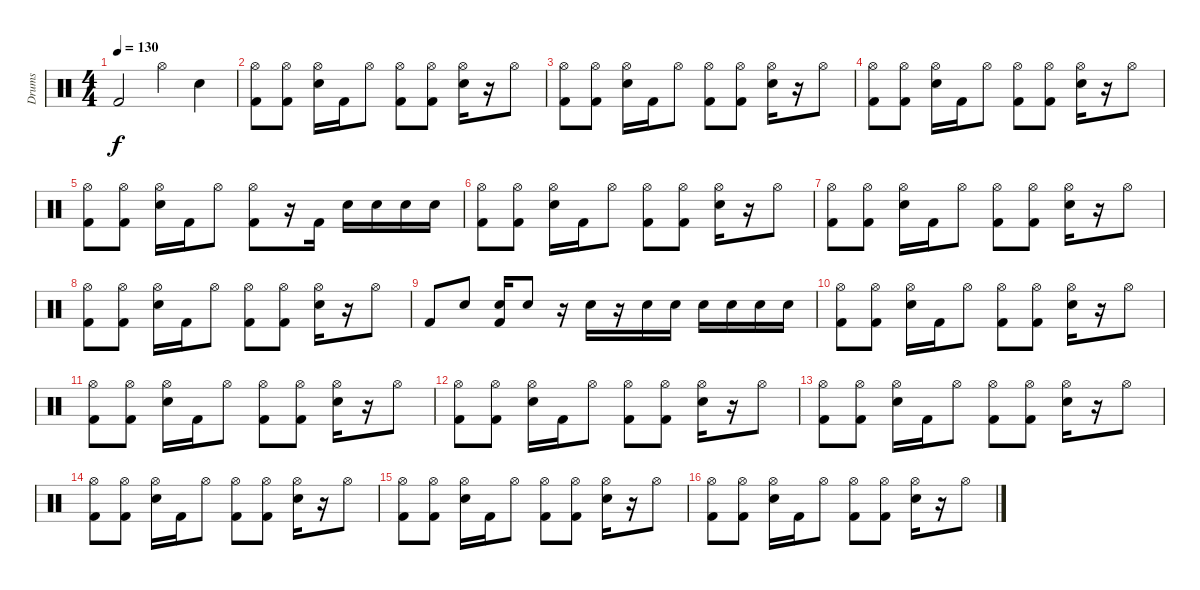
\track ("Drums" "Drums") {instrument percussion}
\staff {score}
\articulation defaults
\ts (4 4)
\tempo 130
\clef neutral
\ks c "Kick (hit) 2".2{dy f} "Hi-Hat (open)".4 "Snare (hit) 2".4
|
("Hi-Hat (open)" "Kick (hit) 2").8 ("Hi-Hat (open)" "Kick (hit) 2").8 ("Hi-Hat (open)" "Snare (hit) 2").16 "Kick (hit) 2".16 "Hi-Hat (open)".8 ("Hi-Hat (open)" "Kick (hit) 2").8 ("Hi-Hat (open)" "Kick (hit) 2").8 ("Hi-Hat (open)" "Snare (hit) 2").16 r.16 "Hi-Hat (open)".8 |
("Hi-Hat (open)" "Kick (hit) 2").8 ("Hi-Hat (open)" "Kick (hit) 2").8 ("Hi-Hat (open)" "Snare (hit) 2").16 "Kick (hit) 2".16 "Hi-Hat (open)".8 ("Hi-Hat (open)" "Kick (hit) 2").8 ("Hi-Hat (open)" "Kick (hit) 2").8 ("Hi-Hat (open)" "Snare (hit) 2").16 r.16 "Hi-Hat (open)".8 |
("Hi-Hat (open)" "Kick (hit) 2").8 ("Hi-Hat (open)" "Kick (hit) 2").8 ("Hi-Hat (open)" "Snare (hit) 2").16 "Kick (hit) 2".16 "Hi-Hat (open)".8 ("Hi-Hat (open)" "Kick (hit) 2").8 ("Hi-Hat (open)" "Kick (hit) 2").8 ("Hi-Hat (open)" "Snare (hit) 2").16 r.16 "Hi-Hat (open)".8 |
("Hi-Hat (open)" "Kick (hit) 2").8 ("Hi-Hat (open)" "Kick (hit) 2").8 ("Hi-Hat (open)" "Snare (hit) 2").16 "Kick (hit) 2".16 "Hi-Hat (open)".8 ("Hi-Hat (open)" "Kick (hit) 2").8 r.16 "Kick (hit) 2".16 "Snare (hit) 2".16 "Snare (hit) 2".16 "Snare (hit) 2".16 "Snare (hit) 2".16 |
("Hi-Hat (open)" "Kick (hit) 2").8 ("Hi-Hat (open)" "Kick (hit) 2").8 ("Hi-Hat (open)" "Snare (hit) 2").16 "Kick (hit) 2".16 "Hi-Hat (open)".8 ("Hi-Hat (open)" "Kick (hit) 2").8 ("Hi-Hat (open)" "Kick (hit) 2").8 ("Hi-Hat (open)" "Snare (hit) 2").16 r.16 "Hi-Hat (open)".8 |
("Hi-Hat (open)" "Kick (hit) 2").8 ("Hi-Hat (open)" "Kick (hit) 2").8 ("Hi-Hat (open)" "Snare (hit) 2").16 "Kick (hit) 2".16 "Hi-Hat (open)".8 ("Hi-Hat (open)" "Kick (hit) 2").8 ("Hi-Hat (open)" "Kick (hit) 2").8 ("Hi-Hat (open)" "Snare (hit) 2").16 r.16 "Hi-Hat (open)".8 |
("Hi-Hat (open)" "Kick (hit) 2").8 ("Hi-Hat (open)" "Kick (hit) 2").8 ("Hi-Hat (open)" "Snare (hit) 2").16 "Kick (hit) 2".16 "Hi-Hat (open)".8 ("Hi-Hat (open)" "Kick (hit) 2").8 ("Hi-Hat (open)" "Kick (hit) 2").8 ("Hi-Hat (open)" "Snare (hit) 2").16 r.16 "Hi-Hat (open)".8 |
"Kick (hit) 2".8 "Snare (hit) 2".8 ("Snare (hit) 2" "Kick (hit) 2").16 "Snare (hit) 2".8 r.16 "Snare (hit) 2".16 r.16 "Snare (hit) 2".16 "Snare (hit) 2".16 "Snare (hit) 2".16 "Snare (hit) 2".16 "Snare (hit) 2".16 "Snare (hit) 2".16 |
("Hi-Hat (open)" "Kick (hit) 2").8 ("Hi-Hat (open)" "Kick (hit) 2").8 ("Hi-Hat (open)" "Snare (hit) 2").16 "Kick (hit) 2".16 "Hi-Hat (open)".8 ("Hi-Hat (open)" "Kick (hit) 2").8 ("Hi-Hat (open)" "Kick (hit) 2").8 ("Hi-Hat (open)" "Snare (hit) 2").16 r.16 "Hi-Hat (open)".8 |
("Hi-Hat (open)" "Kick (hit) 2").8 ("Hi-Hat (open)" "Kick (hit) 2").8 ("Hi-Hat (open)" "Snare (hit) 2").16 "Kick (hit) 2".16 "Hi-Hat (open)".8 ("Hi-Hat (open)" "Kick (hit) 2").8 ("Hi-Hat (open)" "Kick (hit) 2").8 ("Hi-Hat (open)" "Snare (hit) 2").16 r.16 "Hi-Hat (open)".8 |
("Hi-Hat (open)" "Kick (hit) 2").8 ("Hi-Hat (open)" "Kick (hit) 2").8 ("Hi-Hat (open)" "Snare (hit) 2").16 "Kick (hit) 2".16 "Hi-Hat (open)".8 ("Hi-Hat (open)" "Kick (hit) 2").8 ("Hi-Hat (open)" "Kick (hit) 2").8 ("Hi-Hat (open)" "Snare (hit) 2").16 r.16 "Hi-Hat (open)".8 |
("Hi-Hat (open)" "Kick (hit) 2").8 ("Hi-Hat (open)" "Kick (hit) 2").8 ("Hi-Hat (open)" "Snare (hit) 2").16 "Kick (hit) 2".16 "Hi-Hat (open)".8 ("Hi-Hat (open)" "Kick (hit) 2").8 ("Hi-Hat (open)" "Kick (hit) 2").8 ("Hi-Hat (open)" "Snare (hit) 2").16 r.16 "Hi-Hat (open)".8 |
("Hi-Hat (open)" "Kick (hit) 2").8 ("Hi-Hat (open)" "Kick (hit) 2").8 ("Hi-Hat (open)" "Snare (hit) 2").16 "Kick (hit) 2".16 "Hi-Hat (open)".8 ("Hi-Hat (open)" "Kick (hit) 2").8 ("Hi-Hat (open)" "Kick (hit) 2").8 ("Hi-Hat (open)" "Snare (hit) 2").16 r.16 "Hi-Hat (open)".8 |
("Hi-Hat (open)" "Kick (hit) 2").8 ("Hi-Hat (open)" "Kick (hit) 2").8 ("Hi-Hat (open)" "Snare (hit) 2").16 "Kick (hit) 2".16 "Hi-Hat (open)".8 ("Hi-Hat (open)" "Kick (hit) 2").8 ("Hi-Hat (open)" "Kick (hit) 2").8 ("Hi-Hat (open)" "Snare (hit) 2").16 r.16 "Hi-Hat (open)".8 |
("Hi-Hat (open)" "Kick (hit) 2").8 ("Hi-Hat (open)" "Kick (hit) 2").8 ("Hi-Hat (open)" "Snare (hit) 2").16 "Kick (hit) 2".16 "Hi-Hat (open)".8 ("Hi-Hat (open)" "Kick (hit) 2").8 ("Hi-Hat (open)" "Kick (hit) 2").8 ("Hi-Hat (open)" "Snare (hit) 2").16 r.16 "Hi-Hat (open)".8
